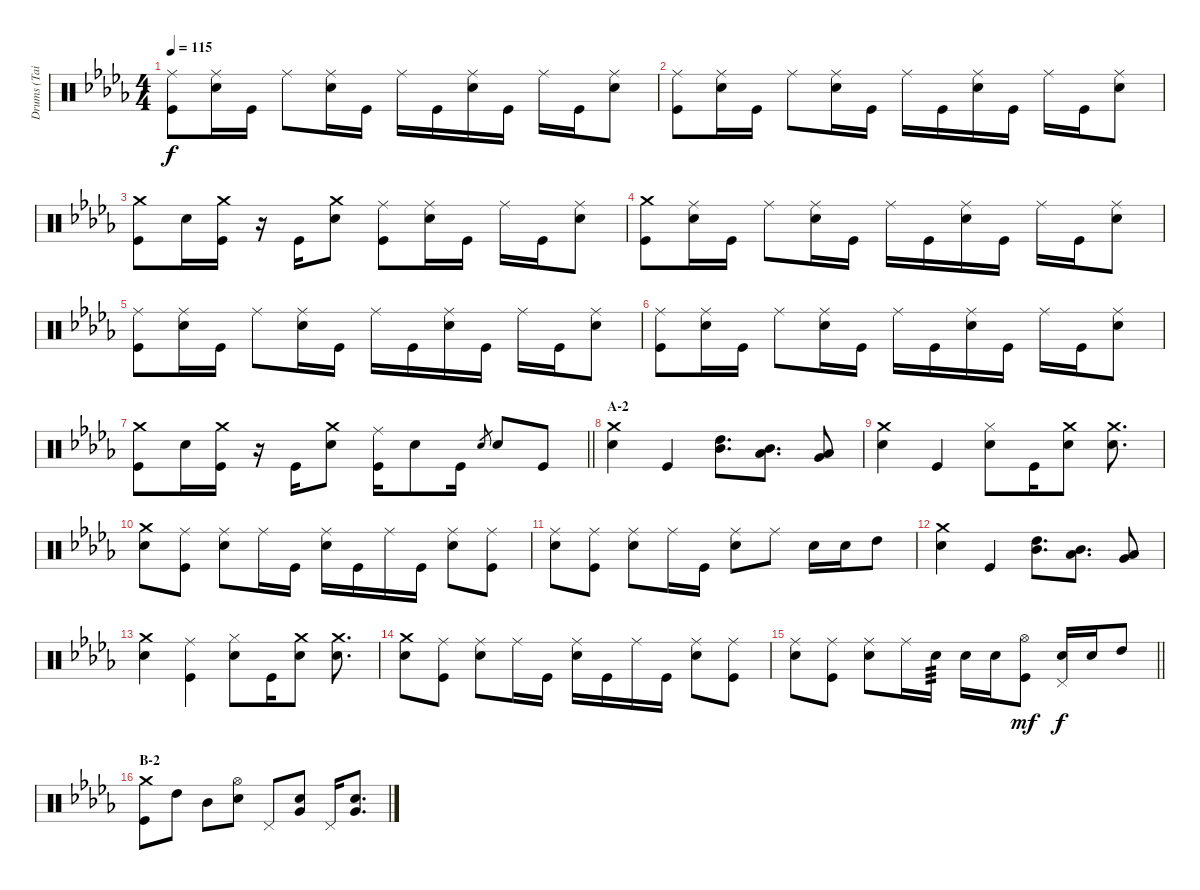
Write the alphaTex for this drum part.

\track ("Drums (Tainaka Ritsu)" "Drums (Tai") {instrument percussion}
\staff {score}
\articulation defaults
\ts (4 4)
\tempo 115
\clef neutral
\ks db
("Ride (middle)" "Kick (hit)").8{dy f} ("Ride (middle)" "Snare (hit) 2").16 "Kick (hit)".16 "Ride (middle)".8 ("Ride (middle)" "Snare (hit) 2").16 "Kick (hit)".16 "Ride (middle)".16 "Kick (hit)".16 ("Ride (middle)" "Snare (hit) 2").16 "Kick (hit)".16 "Ride (middle)".16 "Kick (hit)".16 ("Ride (middle)" "Snare (hit) 2").8 |
("Ride (middle)" "Kick (hit)").8 ("Ride (middle)" "Snare (hit) 2").16 "Kick (hit)".16 "Ride (middle)".8 ("Ride (middle)" "Snare (hit) 2").16 "Kick (hit)".16 "Ride (middle)".16 "Kick (hit)".16 ("Ride (middle)" "Snare (hit) 2").16 "Kick (hit)".16 "Ride (middle)".16 "Kick (hit)".16 ("Ride (middle)" "Snare (hit) 2").8 |
("Crash medium (hit)" "Kick (hit)").8 "Snare (hit) 2".16 ("Crash medium (hit)" "Kick (hit)").16 r.16 "Kick (hit)".16 ("Crash medium (hit)" "Snare (hit) 2").8 ("Ride (middle)" "Kick (hit)").8 ("Ride (middle)" "Snare (hit) 2").16 "Kick (hit)".16 "Ride (middle)".16 "Kick (hit)".16 ("Ride (middle)" "Snare (hit) 2").8 |
("Crash medium (hit)" "Kick (hit)").8 ("Ride (middle)" "Snare (hit) 2").16 "Kick (hit)".16 "Ride (middle)".8 ("Ride (middle)" "Snare (hit) 2").16 "Kick (hit)".16 "Ride (middle)".16 "Kick (hit)".16 ("Ride (middle)" "Snare (hit) 2").16 "Kick (hit)".16 "Ride (middle)".16 "Kick (hit)".16 ("Ride (middle)" "Snare (hit) 2").8 |
("Ride (middle)" "Kick (hit)").8 ("Ride (middle)" "Snare (hit) 2").16 "Kick (hit)".16 "Ride (middle)".8 ("Ride (middle)" "Snare (hit) 2").16 "Kick (hit)".16 "Ride (middle)".16 "Kick (hit)".16 ("Ride (middle)" "Snare (hit) 2").16 "Kick (hit)".16 "Ride (middle)".16 "Kick (hit)".16 ("Ride (middle)" "Snare (hit) 2").8 |
("Ride (middle)" "Kick (hit)").8 ("Ride (middle)" "Snare (hit) 2").16 "Kick (hit)".16 "Ride (middle)".8 ("Ride (middle)" "Snare (hit) 2").16 "Kick (hit)".16 "Ride (middle)".16 "Kick (hit)".16 ("Ride (middle)" "Snare (hit) 2").16 "Kick (hit)".16 "Ride (middle)".16 "Kick (hit)".16 ("Ride (middle)" "Snare (hit) 2").8 |
\barLineRight lightlight
("Crash medium (hit)" "Kick (hit)").8 "Snare (hit) 2".16 ("Crash medium (hit)" "Kick (hit)").16 r.16 "Kick (hit)".16 ("Crash medium (hit)" "Snare (hit) 2").8 ("Ride (middle)" "Kick (hit)").16 "Snare (hit) 2".8 "Kick (hit)".16 "Snare (hit) 2".8{gr} "Snare (hit) 2".8 "Kick (hit)".8 |
\section ("" "A-2")
("Crash medium (hit)" "Snare (hit) 2").4 "Kick (hit)".4 ("High Tom (hit)" "Mid Tom (hit)").8{d} ("Mid Tom (hit)" "Low Tom (hit)").8{d} ("Low Tom (hit)" "Very Low Tom (hit)").8 |
("Crash medium (hit)" "Snare (hit) 2").4 "Kick (hit)".4 ("Hi-Hat (closed)" "Snare (hit) 2").8 "Kick (hit)".16 ("Crash medium (hit)" "Snare (hit) 2").8 ("Crash medium (hit)" "Snare (hit) 2").8{d} |
("Crash medium (hit)" "Snare (hit) 2").8 ("Ride (middle)" "Kick (hit)").8 ("Ride (middle)" "Snare (hit) 2").8 "Ride (middle)".16 "Kick (hit)".16 ("Ride (middle)" "Snare (hit) 2").16 "Kick (hit)".16 "Ride (middle)".16 "Kick (hit)".16 ("Ride (middle)" "Snare (hit) 2").8 ("Ride (middle)" "Kick (hit)").8 |
("Ride (middle)" "Snare (hit) 2").8 ("Ride (middle)" "Kick (hit)").8 ("Ride (middle)" "Snare (hit) 2").8 "Ride (middle)".16 "Kick (hit)".16 ("Ride (middle)" "Snare (hit) 2").8 "Ride (middle)".8 "Snare (hit) 2".16 "Snare (hit) 2".16 "High Tom (hit)".8 |
("Crash medium (hit)" "Snare (hit) 2").4 "Kick (hit)".4 ("High Tom (hit)" "Mid Tom (hit)").8{d} ("Mid Tom (hit)" "Low Tom (hit)").8{d} ("Low Tom (hit)" "Very Low Tom (hit)").8 |
("Crash medium (hit)" "Snare (hit) 2").4 ("Ride (middle)" "Kick (hit)").4 ("Hi-Hat (closed)" "Snare (hit) 2").8 "Kick (hit)".16 ("Crash medium (hit)" "Snare (hit) 2").8 ("Crash medium (hit)" "Snare (hit) 2").8{d} |
("Crash medium (hit)" "Snare (hit) 2").8 ("Ride (middle)" "Kick (hit)").8 ("Ride (middle)" "Snare (hit) 2").8 "Ride (middle)".16 "Kick (hit)".16 ("Ride (middle)" "Snare (hit) 2").16 "Kick (hit)".16 "Ride (middle)".16 "Kick (hit)".16 ("Ride (middle)" "Snare (hit) 2").8 ("Ride (middle)" "Kick (hit)").8 |
\barLineRight lightlight
("Ride (middle)" "Snare (hit) 2").8 ("Ride (middle)" "Kick (hit)").8 ("Ride (middle)" "Snare (hit) 2").8 "Ride (middle)".16 "Snare (hit) 2".16{tp 3} "Snare (hit) 2".16 "Snare (hit) 2".16 ("Hi-Hat (open)" "Kick (hit)").8{dy mf} ("Pedal Hi-Hat (hit)" "Snare (hit) 2").16{dy f} "Snare (hit) 2".16 "High Tom (hit)".8 |
\section ("" "B-2")
("Crash medium (hit)" "Kick (hit)").8 "High Tom (hit)".8 "Mid Tom (hit)".8 ("Hi-Hat (open)" "Snare (hit) 2").8 "Pedal Hi-Hat (hit)".8 ("Snare (hit) 2" "Very Low Tom (hit)").8 "Pedal Hi-Hat (hit)".16 ("Snare (hit) 2" "Very Low Tom (hit)").8{d}
